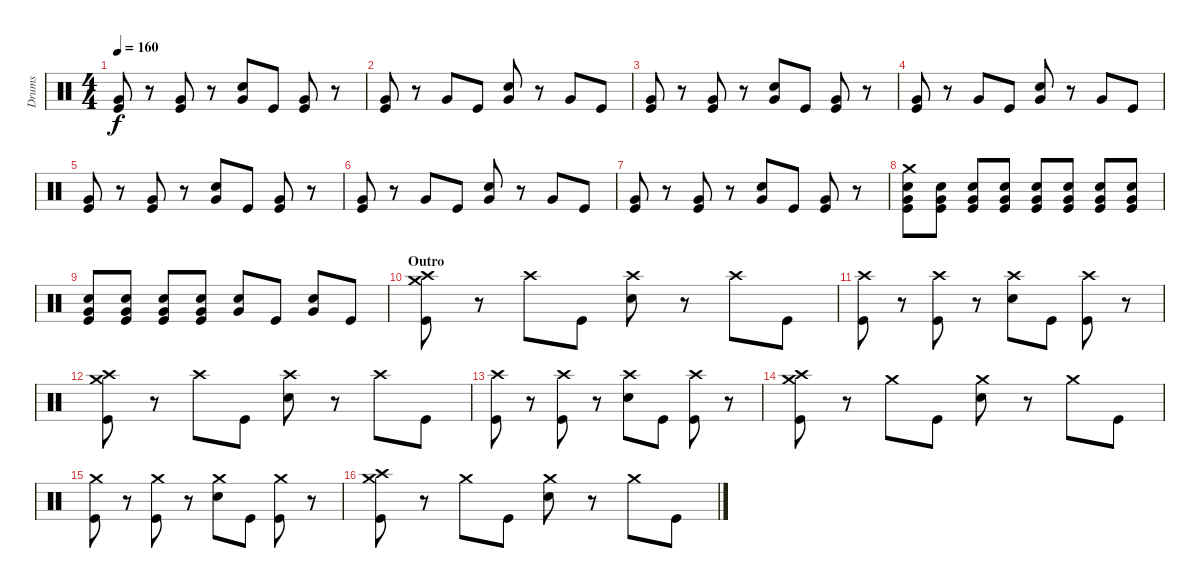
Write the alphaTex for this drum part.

\track ("Drums" "Drums") {instrument percussion}
\staff {score}
\articulation defaults
\ts (4 4)
\tempo 160
\clef neutral
\ks c
("Very Low Tom (hit)" "Kick (hit)").8{dy f} r.8 ("Very Low Tom (hit)" "Kick (hit)").8 r.8 ("Very Low Tom (hit)" "Electric Snare (hit)").8 "Kick (hit)".8 ("Very Low Tom (hit)" "Kick (hit)").8 r.8 |
("Very Low Tom (hit)" "Kick (hit)").8 r.8 "Very Low Tom (hit)".8 "Kick (hit)".8 ("Very Low Tom (hit)" "Electric Snare (hit)").8 r.8 "Very Low Tom (hit)".8 "Kick (hit)".8 |
("Very Low Tom (hit)" "Kick (hit)").8 r.8 ("Very Low Tom (hit)" "Kick (hit)").8 r.8 ("Very Low Tom (hit)" "Electric Snare (hit)").8 "Kick (hit)".8 ("Very Low Tom (hit)" "Kick (hit)").8 r.8 |
("Very Low Tom (hit)" "Kick (hit)").8 r.8 "Very Low Tom (hit)".8 "Kick (hit)".8 ("Very Low Tom (hit)" "Electric Snare (hit)").8 r.8 "Very Low Tom (hit)".8 "Kick (hit)".8 |
("Very Low Tom (hit)" "Kick (hit)").8 r.8 ("Very Low Tom (hit)" "Kick (hit)").8 r.8 ("Very Low Tom (hit)" "Electric Snare (hit)").8 "Kick (hit)".8 ("Very Low Tom (hit)" "Kick (hit)").8 r.8 |
("Very Low Tom (hit)" "Kick (hit)").8 r.8 "Very Low Tom (hit)".8 "Kick (hit)".8 ("Very Low Tom (hit)" "Electric Snare (hit)").8 r.8 "Very Low Tom (hit)".8 "Kick (hit)".8 |
("Very Low Tom (hit)" "Kick (hit)").8 r.8 ("Very Low Tom (hit)" "Kick (hit)").8 r.8 ("Very Low Tom (hit)" "Electric Snare (hit)").8 "Kick (hit)".8 ("Very Low Tom (hit)" "Kick (hit)").8 r.8 |
("Crash medium (hit)" "Very Low Tom (hit)" "Electric Snare (hit)" "Kick (hit)").8 ("Very Low Tom (hit)" "Electric Snare (hit)" "Kick (hit)").8 ("Very Low Tom (hit)" "Electric Snare (hit)" "Kick (hit)").8 ("Very Low Tom (hit)" "Electric Snare (hit)" "Kick (hit)").8 ("Very Low Tom (hit)" "Electric Snare (hit)" "Kick (hit)").8 ("Very Low Tom (hit)" "Electric Snare (hit)" "Kick (hit)").8 ("Very Low Tom (hit)" "Electric Snare (hit)" "Kick (hit)").8 ("Very Low Tom (hit)" "Electric Snare (hit)" "Kick (hit)").8 |
("Very Low Tom (hit)" "Electric Snare (hit)" "Kick (hit)").8 ("Very Low Tom (hit)" "Electric Snare (hit)" "Kick (hit)").8 ("Very Low Tom (hit)" "Electric Snare (hit)" "Kick (hit)").8 ("Very Low Tom (hit)" "Electric Snare (hit)" "Kick (hit)").8 ("Very Low Tom (hit)" "Electric Snare (hit)").8 "Kick (hit)".8 ("Very Low Tom (hit)" "Electric Snare (hit)").8 "Kick (hit)".8 |
\section ("" "Outro")
("Crash medium (hit)" "Crash high (hit)" "Kick (hit)").8 r.8 "Crash high (hit)".8 "Kick (hit)".8 ("Crash high (hit)" "Electric Snare (hit)").8 r.8 "Crash high (hit)".8 "Kick (hit)".8 |
("Crash high (hit)" "Kick (hit)").8 r.8 ("Crash high (hit)" "Kick (hit)").8 r.8 ("Crash high (hit)" "Electric Snare (hit)").8 "Kick (hit)".8 ("Crash high (hit)" "Kick (hit)").8 r.8 |
("Crash medium (hit)" "Crash high (hit)" "Kick (hit)").8 r.8 "Crash high (hit)".8 "Kick (hit)".8 ("Crash high (hit)" "Electric Snare (hit)").8 r.8 "Crash high (hit)".8 "Kick (hit)".8 |
("Crash high (hit)" "Kick (hit)").8 r.8 ("Crash high (hit)" "Kick (hit)").8 r.8 ("Crash high (hit)" "Electric Snare (hit)").8 "Kick (hit)".8 ("Crash high (hit)" "Kick (hit)").8 r.8 |
("Crash high (hit)" "Crash medium (hit)" "Kick (hit)").8 r.8 "Crash medium (hit)".8 "Kick (hit)".8 ("Crash medium (hit)" "Electric Snare (hit)").8 r.8 "Crash medium (hit)".8 "Kick (hit)".8 |
("Crash medium (hit)" "Kick (hit)").8 r.8 ("Crash medium (hit)" "Kick (hit)").8 r.8 ("Crash medium (hit)" "Electric Snare (hit)").8 "Kick (hit)".8 ("Crash medium (hit)" "Kick (hit)").8 r.8 |
("Crash high (hit)" "Crash medium (hit)" "Kick (hit)").8 r.8 "Crash medium (hit)".8 "Kick (hit)".8 ("Crash medium (hit)" "Electric Snare (hit)").8 r.8 "Crash medium (hit)".8 "Kick (hit)".8
